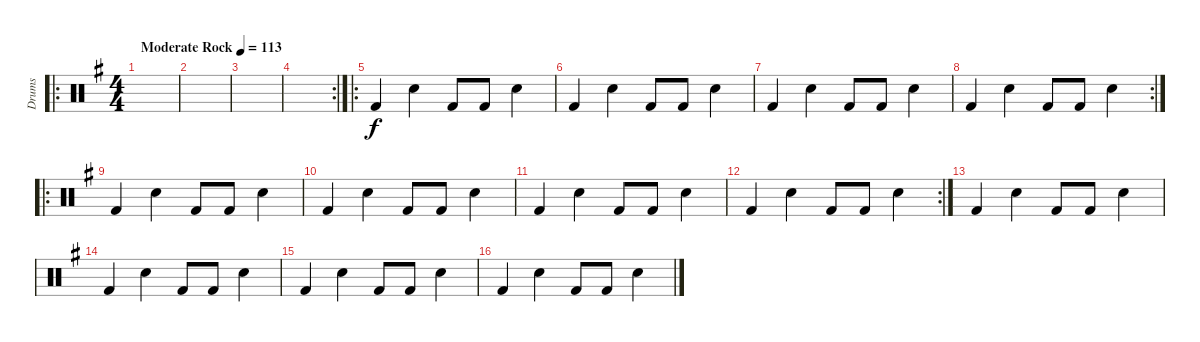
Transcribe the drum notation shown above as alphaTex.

\track ("Drums" "Drums") {instrument percussion}
\staff {score}
\articulation defaults
\ro
\ts (4 4)
\tempo (113 "Moderate Rock")
\clef neutral
\ks g
|
|
|
\rc 2
|
\ro "Kick (hit) 2".4 "Electric Snare (hit)".4 "Kick (hit) 2".8 "Kick (hit) 2".8 "Electric Snare (hit)".4
|
"Kick (hit) 2".4 "Electric Snare (hit)".4 "Kick (hit) 2".8 "Kick (hit) 2".8 "Electric Snare (hit)".4 |
"Kick (hit) 2".4 "Electric Snare (hit)".4 "Kick (hit) 2".8 "Kick (hit) 2".8 "Electric Snare (hit)".4 |
\rc 2 "Kick (hit) 2".4 "Electric Snare (hit)".4 "Kick (hit) 2".8 "Kick (hit) 2".8 "Electric Snare (hit)".4
|
\ro "Kick (hit) 2".4 "Electric Snare (hit)".4 "Kick (hit) 2".8 "Kick (hit) 2".8 "Electric Snare (hit)".4
|
"Kick (hit) 2".4 "Electric Snare (hit)".4 "Kick (hit) 2".8 "Kick (hit) 2".8 "Electric Snare (hit)".4 |
"Kick (hit) 2".4 "Electric Snare (hit)".4 "Kick (hit) 2".8 "Kick (hit) 2".8 "Electric Snare (hit)".4 |
\rc 2 "Kick (hit) 2".4 "Electric Snare (hit)".4 "Kick (hit) 2".8 "Kick (hit) 2".8 "Electric Snare (hit)".4
|
"Kick (hit) 2".4 "Electric Snare (hit)".4 "Kick (hit) 2".8 "Kick (hit) 2".8 "Electric Snare (hit)".4 |
"Kick (hit) 2".4 "Electric Snare (hit)".4 "Kick (hit) 2".8 "Kick (hit) 2".8 "Electric Snare (hit)".4 |
"Kick (hit) 2".4 "Electric Snare (hit)".4 "Kick (hit) 2".8 "Kick (hit) 2".8 "Electric Snare (hit)".4 |
"Kick (hit) 2".4 "Electric Snare (hit)".4 "Kick (hit) 2".8 "Kick (hit) 2".8 "Electric Snare (hit)".4
